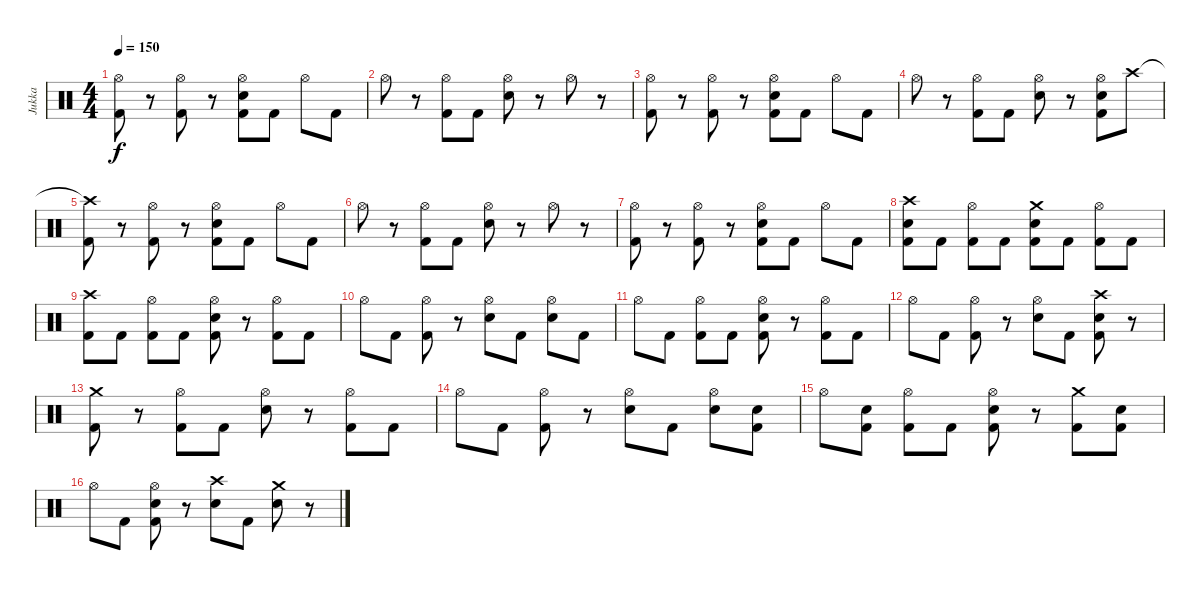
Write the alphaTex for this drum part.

\track ("Jukka" "Jukka") {instrument percussion}
\staff {score}
\articulation defaults
\ts (4 4)
\tempo 150
\clef neutral
\ks c
("Hi-Hat (open)" "Kick (hit) 2").8{dy f} r.8 ("Hi-Hat (open)" "Kick (hit) 2").8 r.8 ("Hi-Hat (open)" "Electric Snare (hit)" "Kick (hit) 2").8 "Kick (hit) 2".8 "Hi-Hat (open)".8 "Kick (hit) 2".8 |
"Hi-Hat (open)".8 r.8 ("Hi-Hat (open)" "Kick (hit) 2").8 "Kick (hit) 2".8 ("Hi-Hat (open)" "Electric Snare (hit)").8 r.8 "Hi-Hat (open)".8 r.8 |
("Hi-Hat (open)" "Kick (hit) 2").8 r.8 ("Hi-Hat (open)" "Kick (hit) 2").8 r.8 ("Hi-Hat (open)" "Electric Snare (hit)" "Kick (hit) 2").8 "Kick (hit) 2".8 "Hi-Hat (open)".8 "Kick (hit) 2".8 |
"Hi-Hat (open)".8 r.8 ("Hi-Hat (open)" "Kick (hit) 2").8 "Kick (hit) 2".8 ("Hi-Hat (open)" "Electric Snare (hit)").8 r.8 ("Hi-Hat (open)" "Electric Snare (hit)" "Kick (hit) 2").8 "Crash high (hit)".8 |
("Crash high (hit)"{t} "Kick (hit) 2").8 r.8 ("Hi-Hat (open)" "Kick (hit) 2").8 r.8 ("Hi-Hat (open)" "Electric Snare (hit)" "Kick (hit) 2").8 "Kick (hit) 2".8 "Hi-Hat (open)".8 "Kick (hit) 2".8 |
"Hi-Hat (open)".8 r.8 ("Hi-Hat (open)" "Kick (hit) 2").8 "Kick (hit) 2".8 ("Hi-Hat (open)" "Electric Snare (hit)").8 r.8 "Hi-Hat (open)".8 r.8 |
("Hi-Hat (open)" "Kick (hit) 2").8 r.8 ("Hi-Hat (open)" "Kick (hit) 2").8 r.8 ("Hi-Hat (open)" "Electric Snare (hit)" "Kick (hit) 2").8 "Kick (hit) 2".8 "Hi-Hat (open)".8 "Kick (hit) 2".8 |
("Crash high (hit)" "Electric Snare (hit)" "Kick (hit) 2").8 "Kick (hit) 2".8 ("Hi-Hat (open)" "Kick (hit) 2").8 "Kick (hit) 2".8 ("Crash medium (hit)" "Electric Snare (hit)" "Kick (hit) 2").8 "Kick (hit) 2".8 ("Hi-Hat (open)" "Kick (hit) 2").8 "Kick (hit) 2".8 |
("Crash high (hit)" "Kick (hit) 2").8 "Kick (hit) 2".8 ("Hi-Hat (open)" "Kick (hit) 2").8 "Kick (hit) 2".8 ("Hi-Hat (open)" "Electric Snare (hit)" "Kick (hit) 2").8 r.8 ("Hi-Hat (open)" "Kick (hit) 2").8 "Kick (hit) 2".8 |
"Hi-Hat (open)".8 "Kick (hit) 2".8 ("Hi-Hat (open)" "Kick (hit) 2").8 r.8 ("Hi-Hat (open)" "Electric Snare (hit)").8 "Kick (hit) 2".8 ("Hi-Hat (open)" "Electric Snare (hit)").8 "Kick (hit) 2".8 |
"Hi-Hat (open)".8 "Kick (hit) 2".8 ("Hi-Hat (open)" "Kick (hit) 2").8 "Kick (hit) 2".8 ("Hi-Hat (open)" "Electric Snare (hit)" "Kick (hit) 2").8 r.8 ("Hi-Hat (open)" "Kick (hit) 2").8 "Kick (hit) 2".8 |
"Hi-Hat (open)".8 "Kick (hit) 2".8 ("Hi-Hat (open)" "Kick (hit) 2").8 r.8 ("Hi-Hat (open)" "Electric Snare (hit)").8 "Kick (hit) 2".8 ("Crash high (hit)" "Electric Snare (hit)" "Kick (hit) 2").8 r.8 |
("Crash medium (hit)" "Kick (hit) 2").8 r.8 ("Hi-Hat (open)" "Kick (hit) 2").8 "Kick (hit) 2".8 ("Hi-Hat (open)" "Electric Snare (hit)").8 r.8 ("Hi-Hat (open)" "Kick (hit) 2").8 "Kick (hit) 2".8 |
"Hi-Hat (open)".8 "Kick (hit) 2".8 ("Hi-Hat (open)" "Kick (hit) 2").8 r.8 ("Hi-Hat (open)" "Electric Snare (hit)").8 "Kick (hit) 2".8 ("Hi-Hat (open)" "Electric Snare (hit)").8 ("Electric Snare (hit)" "Kick (hit) 2").8 |
"Hi-Hat (open)".8 ("Electric Snare (hit)" "Kick (hit) 2").8 ("Hi-Hat (open)" "Kick (hit) 2").8 "Kick (hit) 2".8 ("Hi-Hat (open)" "Electric Snare (hit)" "Kick (hit) 2").8 r.8 ("Crash medium (hit)" "Kick (hit) 2").8 ("Electric Snare (hit)" "Kick (hit) 2").8 |
"Hi-Hat (open)".8 "Kick (hit) 2".8 ("Hi-Hat (open)" "Electric Snare (hit)" "Kick (hit) 2").8 r.8 ("Crash high (hit)" "Electric Snare (hit)").8 "Kick (hit) 2".8 ("Crash medium (hit)" "Electric Snare (hit)").8 r.8
